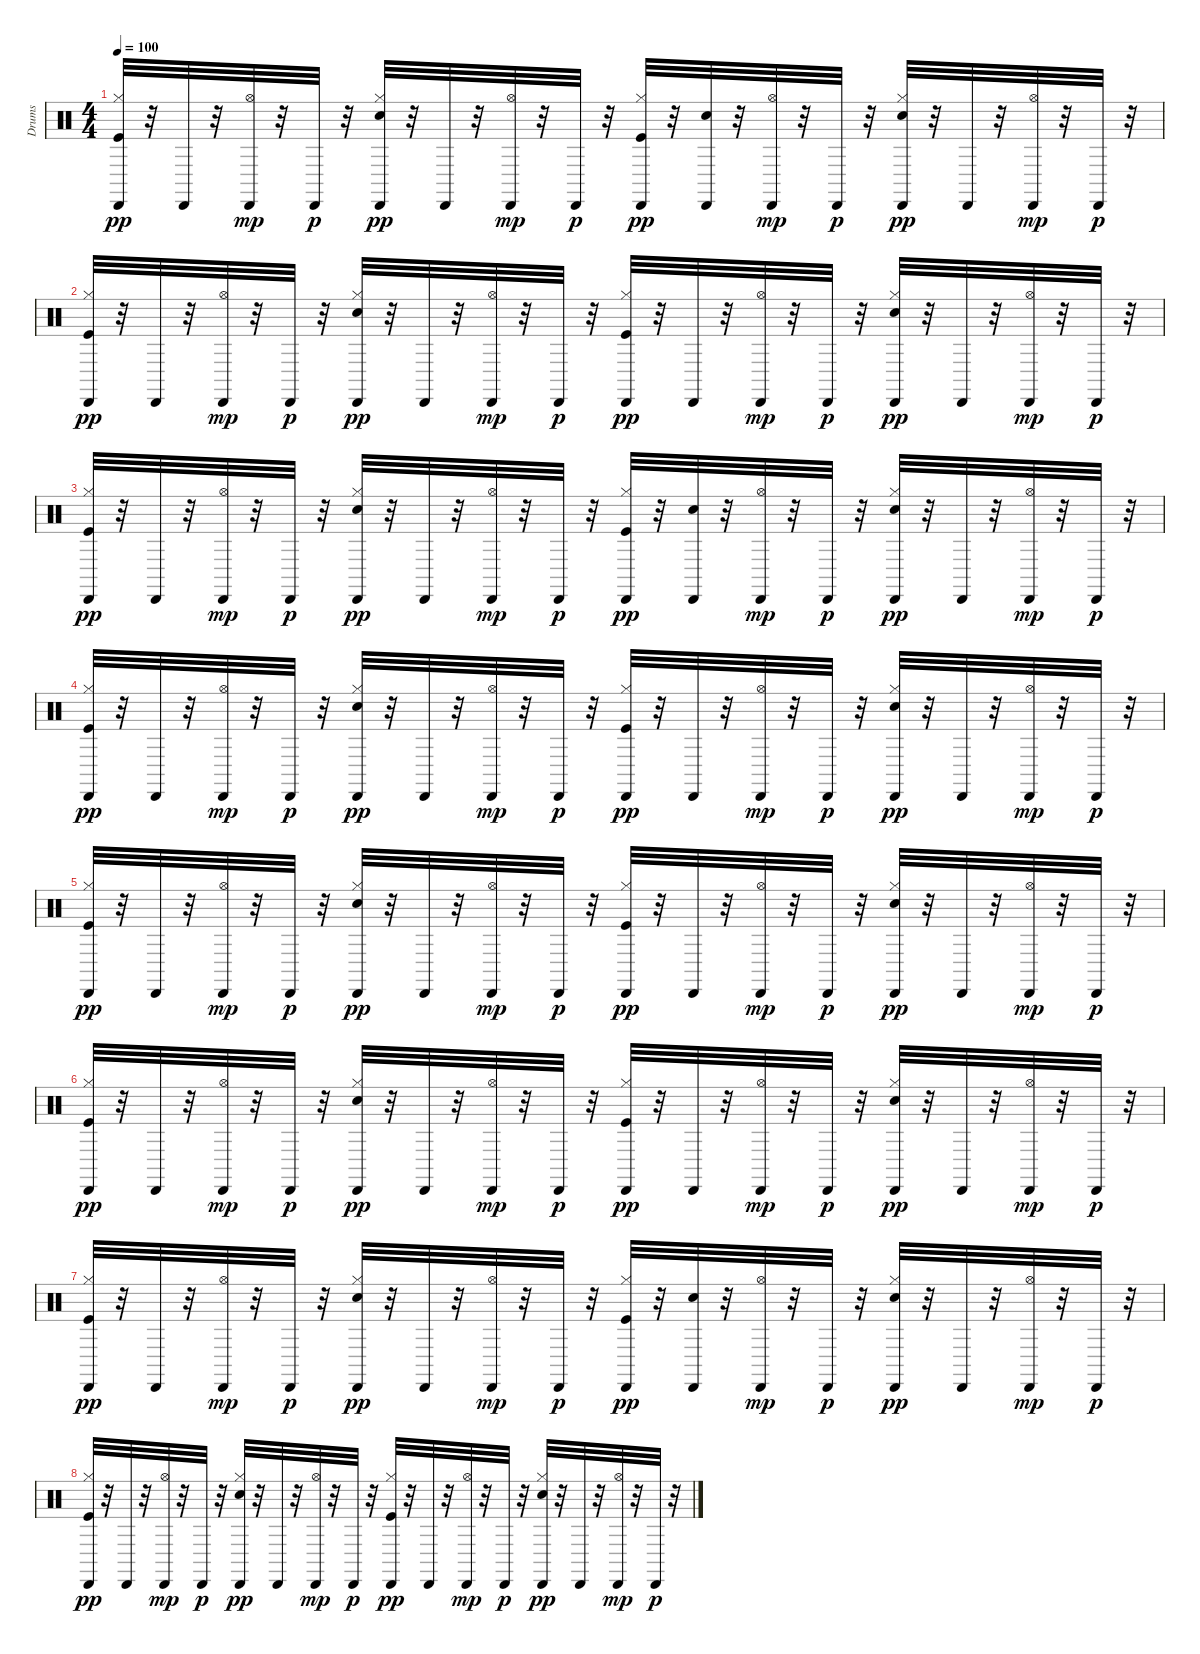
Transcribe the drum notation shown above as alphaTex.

\track ("Drums" "Drums") {instrument percussion}
\staff {score}
\articulation defaults
\ts (4 4)
\tempo 100
\clef neutral
\ks c
("Kick (hit)" "Hi-Hat (closed)" "Cabasa (hit)").32{dy pp} r.32 "Cabasa (hit)".32 r.32 ("Hi-Hat (open)" "Cabasa (hit)").32{dy mp} r.32 "Cabasa (hit)".32{dy p} r.32 ("Electric Snare (hit)" "Hi-Hat (closed)" "Cabasa (hit)").32{dy pp} r.32 "Cabasa (hit)".32 r.32 ("Hi-Hat (open)" "Cabasa (hit)").32{dy mp} r.32 "Cabasa (hit)".32{dy p} r.32 ("Kick (hit)" "Hi-Hat (closed)" "Cabasa (hit)").32{dy pp} r.32 ("Electric Snare (hit)" "Cabasa (hit)").32 r.32 ("Hi-Hat (open)" "Cabasa (hit)").32{dy mp} r.32 "Cabasa (hit)".32{dy p} r.32 ("Electric Snare (hit)" "Hi-Hat (closed)" "Cabasa (hit)").32{dy pp} r.32 "Cabasa (hit)".32 r.32 ("Hi-Hat (open)" "Cabasa (hit)").32{dy mp} r.32 "Cabasa (hit)".32{dy p} r.32 |
("Kick (hit)" "Hi-Hat (closed)" "Cabasa (hit)").32{dy pp} r.32 "Cabasa (hit)".32 r.32 ("Hi-Hat (open)" "Cabasa (hit)").32{dy mp} r.32 "Cabasa (hit)".32{dy p} r.32 ("Electric Snare (hit)" "Hi-Hat (closed)" "Cabasa (hit)").32{dy pp} r.32 "Cabasa (hit)".32 r.32 ("Hi-Hat (open)" "Cabasa (hit)").32{dy mp} r.32 "Cabasa (hit)".32{dy p} r.32 ("Kick (hit)" "Hi-Hat (closed)" "Cabasa (hit)").32{dy pp} r.32 "Cabasa (hit)".32 r.32 ("Hi-Hat (open)" "Cabasa (hit)").32{dy mp} r.32 "Cabasa (hit)".32{dy p} r.32 ("Electric Snare (hit)" "Hi-Hat (closed)" "Cabasa (hit)").32{dy pp} r.32 "Cabasa (hit)".32 r.32 ("Hi-Hat (open)" "Cabasa (hit)").32{dy mp} r.32 "Cabasa (hit)".32{dy p} r.32 |
("Kick (hit)" "Hi-Hat (closed)" "Cabasa (hit)").32{dy pp} r.32 "Cabasa (hit)".32 r.32 ("Hi-Hat (open)" "Cabasa (hit)").32{dy mp} r.32 "Cabasa (hit)".32{dy p} r.32 ("Electric Snare (hit)" "Hi-Hat (closed)" "Cabasa (hit)").32{dy pp} r.32 "Cabasa (hit)".32 r.32 ("Hi-Hat (open)" "Cabasa (hit)").32{dy mp} r.32 "Cabasa (hit)".32{dy p} r.32 ("Kick (hit)" "Hi-Hat (closed)" "Cabasa (hit)").32{dy pp} r.32 ("Electric Snare (hit)" "Cabasa (hit)").32 r.32 ("Hi-Hat (open)" "Cabasa (hit)").32{dy mp} r.32 "Cabasa (hit)".32{dy p} r.32 ("Electric Snare (hit)" "Hi-Hat (closed)" "Cabasa (hit)").32{dy pp} r.32 "Cabasa (hit)".32 r.32 ("Hi-Hat (open)" "Cabasa (hit)").32{dy mp} r.32 "Cabasa (hit)".32{dy p} r.32 |
("Kick (hit)" "Hi-Hat (closed)" "Cabasa (hit)").32{dy pp} r.32 "Cabasa (hit)".32 r.32 ("Hi-Hat (open)" "Cabasa (hit)").32{dy mp} r.32 "Cabasa (hit)".32{dy p} r.32 ("Electric Snare (hit)" "Hi-Hat (closed)" "Cabasa (hit)").32{dy pp} r.32 "Cabasa (hit)".32 r.32 ("Hi-Hat (open)" "Cabasa (hit)").32{dy mp} r.32 "Cabasa (hit)".32{dy p} r.32 ("Kick (hit)" "Hi-Hat (closed)" "Cabasa (hit)").32{dy pp} r.32 "Cabasa (hit)".32 r.32 ("Hi-Hat (open)" "Cabasa (hit)").32{dy mp} r.32 "Cabasa (hit)".32{dy p} r.32 ("Electric Snare (hit)" "Hi-Hat (closed)" "Cabasa (hit)").32{dy pp} r.32 "Cabasa (hit)".32 r.32 ("Hi-Hat (open)" "Cabasa (hit)").32{dy mp} r.32 "Cabasa (hit)".32{dy p} r.32 |
("Kick (hit)" "Hi-Hat (closed)" "Cabasa (hit)").32{dy pp} r.32 "Cabasa (hit)".32 r.32 ("Hi-Hat (open)" "Cabasa (hit)").32{dy mp} r.32 "Cabasa (hit)".32{dy p} r.32 ("Electric Snare (hit)" "Hi-Hat (closed)" "Cabasa (hit)").32{dy pp} r.32 "Cabasa (hit)".32 r.32 ("Hi-Hat (open)" "Cabasa (hit)").32{dy mp} r.32 "Cabasa (hit)".32{dy p} r.32 ("Kick (hit)" "Hi-Hat (closed)" "Cabasa (hit)").32{dy pp} r.32 "Cabasa (hit)".32 r.32 ("Hi-Hat (open)" "Cabasa (hit)").32{dy mp} r.32 "Cabasa (hit)".32{dy p} r.32 ("Electric Snare (hit)" "Hi-Hat (closed)" "Cabasa (hit)").32{dy pp} r.32 "Cabasa (hit)".32 r.32 ("Hi-Hat (open)" "Cabasa (hit)").32{dy mp} r.32 "Cabasa (hit)".32{dy p} r.32 |
("Kick (hit)" "Hi-Hat (closed)" "Cabasa (hit)").32{dy pp} r.32 "Cabasa (hit)".32 r.32 ("Hi-Hat (open)" "Cabasa (hit)").32{dy mp} r.32 "Cabasa (hit)".32{dy p} r.32 ("Electric Snare (hit)" "Hi-Hat (closed)" "Cabasa (hit)").32{dy pp} r.32 "Cabasa (hit)".32 r.32 ("Hi-Hat (open)" "Cabasa (hit)").32{dy mp} r.32 "Cabasa (hit)".32{dy p} r.32 ("Kick (hit)" "Hi-Hat (closed)" "Cabasa (hit)").32{dy pp} r.32 "Cabasa (hit)".32 r.32 ("Hi-Hat (open)" "Cabasa (hit)").32{dy mp} r.32 "Cabasa (hit)".32{dy p} r.32 ("Electric Snare (hit)" "Hi-Hat (closed)" "Cabasa (hit)").32{dy pp} r.32 "Cabasa (hit)".32 r.32 ("Hi-Hat (open)" "Cabasa (hit)").32{dy mp} r.32 "Cabasa (hit)".32{dy p} r.32 |
("Kick (hit)" "Hi-Hat (closed)" "Cabasa (hit)").32{dy pp} r.32 "Cabasa (hit)".32 r.32 ("Hi-Hat (open)" "Cabasa (hit)").32{dy mp} r.32 "Cabasa (hit)".32{dy p} r.32 ("Electric Snare (hit)" "Hi-Hat (closed)" "Cabasa (hit)").32{dy pp} r.32 "Cabasa (hit)".32 r.32 ("Hi-Hat (open)" "Cabasa (hit)").32{dy mp} r.32 "Cabasa (hit)".32{dy p} r.32 ("Kick (hit)" "Hi-Hat (closed)" "Cabasa (hit)").32{dy pp} r.32 ("Electric Snare (hit)" "Cabasa (hit)").32 r.32 ("Hi-Hat (open)" "Cabasa (hit)").32{dy mp} r.32 "Cabasa (hit)".32{dy p} r.32 ("Electric Snare (hit)" "Hi-Hat (closed)" "Cabasa (hit)").32{dy pp} r.32 "Cabasa (hit)".32 r.32 ("Hi-Hat (open)" "Cabasa (hit)").32{dy mp} r.32 "Cabasa (hit)".32{dy p} r.32 |
("Kick (hit)" "Hi-Hat (closed)" "Cabasa (hit)").32{dy pp} r.32 "Cabasa (hit)".32 r.32 ("Hi-Hat (open)" "Cabasa (hit)").32{dy mp} r.32 "Cabasa (hit)".32{dy p} r.32 ("Electric Snare (hit)" "Hi-Hat (closed)" "Cabasa (hit)").32{dy pp} r.32 "Cabasa (hit)".32 r.32 ("Hi-Hat (open)" "Cabasa (hit)").32{dy mp} r.32 "Cabasa (hit)".32{dy p} r.32 ("Kick (hit)" "Hi-Hat (closed)" "Cabasa (hit)").32{dy pp} r.32 "Cabasa (hit)".32 r.32 ("Hi-Hat (open)" "Cabasa (hit)").32{dy mp} r.32 "Cabasa (hit)".32{dy p} r.32 ("Electric Snare (hit)" "Hi-Hat (closed)" "Cabasa (hit)").32{dy pp} r.32 "Cabasa (hit)".32 r.32 ("Hi-Hat (open)" "Cabasa (hit)").32{dy mp} r.32 "Cabasa (hit)".32{dy p} r.32
